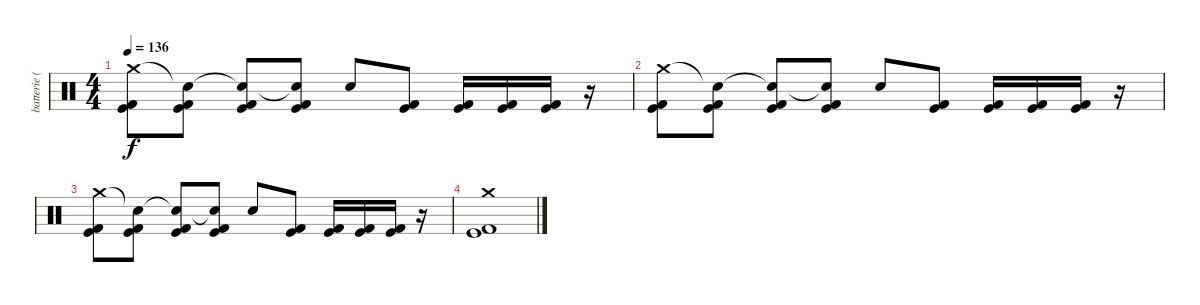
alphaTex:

\track ("batterie (J.Castillo)" "batterie (") {instrument percussion}
\staff {score}
\articulation defaults
\ts (4 4)
\tempo 136
\clef neutral
\ks c
("Crash medium (hit)" "Kick (hit) 2" "Kick (hit)").8{dy f} ("Snare (hit)"{t} "Kick (hit) 2" "Kick (hit)").8 ("Snare (hit)"{t} "Kick (hit) 2" "Kick (hit)").8 ("Snare (hit)"{t} "Kick (hit) 2" "Kick (hit)").8 "Electric Snare (hit)".8 ("Kick (hit) 2" "Kick (hit)").8 ("Kick (hit) 2" "Kick (hit)").16 ("Kick (hit) 2" "Kick (hit)").16 ("Kick (hit) 2" "Kick (hit)").16 r.16 |
("Crash medium (hit)" "Kick (hit) 2" "Kick (hit)").8 ("Snare (hit)"{t} "Kick (hit) 2" "Kick (hit)").8 ("Snare (hit)"{t} "Kick (hit) 2" "Kick (hit)").8 ("Snare (hit)"{t} "Kick (hit) 2" "Kick (hit)").8 "Electric Snare (hit)".8 ("Kick (hit) 2" "Kick (hit)").8 ("Kick (hit) 2" "Kick (hit)").16 ("Kick (hit) 2" "Kick (hit)").16 ("Kick (hit) 2" "Kick (hit)").16 r.16 |
("Crash medium (hit)" "Kick (hit) 2" "Kick (hit)").8 ("Snare (hit)"{t} "Kick (hit) 2" "Kick (hit)").8 ("Snare (hit)"{t} "Kick (hit) 2" "Kick (hit)").8 ("Snare (hit)"{t} "Kick (hit) 2" "Kick (hit)").8 "Electric Snare (hit)".8 ("Kick (hit) 2" "Kick (hit)").8 ("Kick (hit) 2" "Kick (hit)").16 ("Kick (hit) 2" "Kick (hit)").16 ("Kick (hit) 2" "Kick (hit)").16 r.16 |
("Crash medium (hit)" "Kick (hit) 2" "Kick (hit)").1
